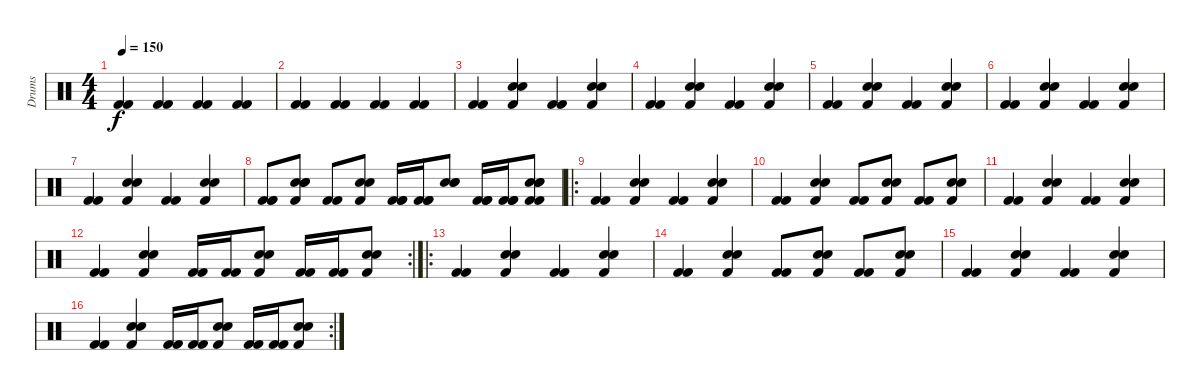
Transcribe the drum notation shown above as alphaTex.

\track ("Drums" "Drums") {instrument percussion}
\staff {score}
\articulation defaults
\ts (4 4)
\tempo 150
\clef neutral
\ks c
("Kick (hit) 2" "Kick (hit) 2").4{dy f} ("Kick (hit) 2" "Kick (hit) 2").4 ("Kick (hit) 2" "Kick (hit) 2").4 ("Kick (hit) 2" "Kick (hit) 2").4 |
("Kick (hit) 2" "Kick (hit) 2").4 ("Kick (hit) 2" "Kick (hit) 2").4 ("Kick (hit) 2" "Kick (hit) 2").4 ("Kick (hit) 2" "Kick (hit) 2").4 |
("Kick (hit) 2" "Kick (hit) 2").4 ("Snare (hit) 2" "Snare (hit) 2" "Kick (hit) 2").4 ("Kick (hit) 2" "Kick (hit) 2").4 ("Snare (hit) 2" "Snare (hit) 2" "Kick (hit) 2").4 |
("Kick (hit) 2" "Kick (hit) 2").4 ("Snare (hit) 2" "Snare (hit) 2" "Kick (hit) 2").4 ("Kick (hit) 2" "Kick (hit) 2").4 ("Snare (hit) 2" "Snare (hit) 2" "Kick (hit) 2").4 |
("Kick (hit) 2" "Kick (hit) 2").4 ("Snare (hit) 2" "Snare (hit) 2" "Kick (hit) 2").4 ("Kick (hit) 2" "Kick (hit) 2").4 ("Snare (hit) 2" "Snare (hit) 2" "Kick (hit) 2").4 |
("Kick (hit) 2" "Kick (hit) 2").4 ("Snare (hit) 2" "Snare (hit) 2" "Kick (hit) 2").4 ("Kick (hit) 2" "Kick (hit) 2").4 ("Snare (hit) 2" "Snare (hit) 2" "Kick (hit) 2").4 |
("Kick (hit) 2" "Kick (hit) 2").4 ("Snare (hit) 2" "Snare (hit) 2" "Kick (hit) 2").4 ("Kick (hit) 2" "Kick (hit) 2").4 ("Snare (hit) 2" "Snare (hit) 2" "Kick (hit) 2").4 |
("Kick (hit) 2" "Kick (hit) 2" "Kick (hit) 2").8 ("Snare (hit) 2" "Snare (hit) 2" "Snare (hit) 2" "Kick (hit) 2").8 ("Kick (hit) 2" "Kick (hit) 2").8 ("Snare (hit) 2" "Snare (hit) 2" "Kick (hit) 2").8 ("Kick (hit) 2" "Kick (hit) 2" "Kick (hit) 2").16 ("Kick (hit) 2" "Kick (hit) 2" "Kick (hit) 2").16 ("Snare (hit) 2" "Snare (hit) 2" "Snare (hit) 2").8 ("Kick (hit) 2" "Kick (hit) 2" "Kick (hit) 2").16 ("Kick (hit) 2" "Kick (hit) 2" "Kick (hit) 2").16 ("Snare (hit) 2" "Snare (hit) 2" "Snare (hit) 2" "Kick (hit) 2" "Kick (hit) 2").8 |
\ro
("Kick (hit) 2" "Kick (hit) 2").4 ("Snare (hit) 2" "Snare (hit) 2" "Kick (hit) 2").4 ("Kick (hit) 2" "Kick (hit) 2").4 ("Snare (hit) 2" "Snare (hit) 2" "Kick (hit) 2").4 |
("Kick (hit) 2" "Kick (hit) 2").4 ("Snare (hit) 2" "Snare (hit) 2" "Kick (hit) 2").4 ("Kick (hit) 2" "Kick (hit) 2").8 ("Snare (hit) 2" "Snare (hit) 2" "Kick (hit) 2").8 ("Kick (hit) 2" "Kick (hit) 2").8 ("Snare (hit) 2" "Snare (hit) 2" "Kick (hit) 2").8 |
("Kick (hit) 2" "Kick (hit) 2").4 ("Snare (hit) 2" "Snare (hit) 2" "Kick (hit) 2").4 ("Kick (hit) 2" "Kick (hit) 2").4 ("Snare (hit) 2" "Snare (hit) 2" "Kick (hit) 2").4 |
\rc 2
("Kick (hit) 2" "Kick (hit) 2").4 ("Snare (hit) 2" "Snare (hit) 2" "Kick (hit) 2").4 ("Kick (hit) 2" "Kick (hit) 2").16 ("Kick (hit) 2" "Kick (hit) 2").16 ("Snare (hit) 2" "Snare (hit) 2" "Kick (hit) 2").8 ("Kick (hit) 2" "Kick (hit) 2").16 ("Kick (hit) 2" "Kick (hit) 2").16 ("Snare (hit) 2" "Snare (hit) 2" "Kick (hit) 2").8 |
\ro
("Kick (hit) 2" "Kick (hit) 2").4 ("Snare (hit) 2" "Snare (hit) 2" "Kick (hit) 2").4 ("Kick (hit) 2" "Kick (hit) 2").4 ("Snare (hit) 2" "Snare (hit) 2" "Kick (hit) 2").4 |
("Kick (hit) 2" "Kick (hit) 2").4 ("Snare (hit) 2" "Snare (hit) 2" "Kick (hit) 2").4 ("Kick (hit) 2" "Kick (hit) 2").8 ("Snare (hit) 2" "Snare (hit) 2" "Kick (hit) 2").8 ("Kick (hit) 2" "Kick (hit) 2").8 ("Snare (hit) 2" "Snare (hit) 2" "Kick (hit) 2").8 |
("Kick (hit) 2" "Kick (hit) 2").4 ("Snare (hit) 2" "Snare (hit) 2" "Kick (hit) 2").4 ("Kick (hit) 2" "Kick (hit) 2").4 ("Snare (hit) 2" "Snare (hit) 2" "Kick (hit) 2").4 |
\rc 2
("Kick (hit) 2" "Kick (hit) 2").4 ("Snare (hit) 2" "Snare (hit) 2" "Kick (hit) 2").4 ("Kick (hit) 2" "Kick (hit) 2").16 ("Kick (hit) 2" "Kick (hit) 2").16 ("Snare (hit) 2" "Snare (hit) 2" "Kick (hit) 2").8 ("Kick (hit) 2" "Kick (hit) 2").16 ("Kick (hit) 2" "Kick (hit) 2").16 ("Snare (hit) 2" "Snare (hit) 2" "Kick (hit) 2").8
